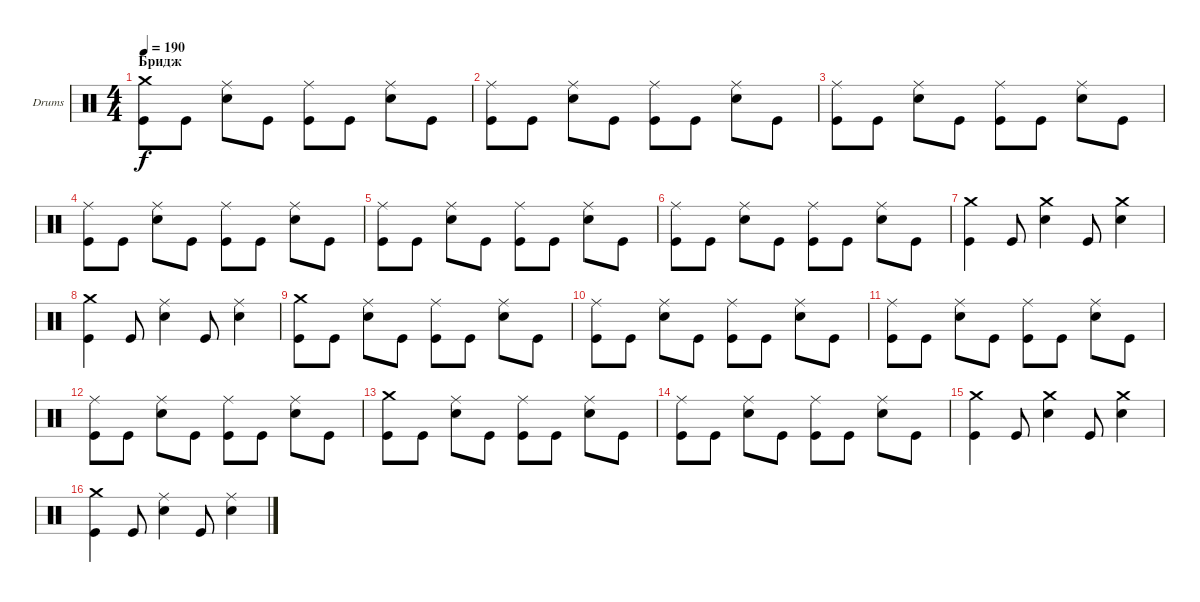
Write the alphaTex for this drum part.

\bracketExtendMode groupsimilarinstruments
\firstSystemTrackNameOrientation horizontal
\otherSystemsTrackNameOrientation horizontal
\track ("Максим Удалов" "Drums") {instrument percussion}
\staff {score}
\articulation defaults
\ts (4 4)
\section ("" "Бридж")
\tempo 190
\clef neutral
\ks c
("Kick (hit)" "Crash medium (hit)").8{dy f} "Kick (hit)".8 ("Snare (hit) 2" "Ride (middle)").8 "Kick (hit)".8 ("Kick (hit)" "Ride (middle)").8 "Kick (hit)".8 ("Snare (hit) 2" "Ride (middle)").8 "Kick (hit)".8 |
("Kick (hit)" "Ride (middle)").8 "Kick (hit)".8 ("Snare (hit) 2" "Ride (middle)").8 "Kick (hit)".8 ("Kick (hit)" "Ride (middle)").8 "Kick (hit)".8 ("Snare (hit) 2" "Ride (middle)").8 "Kick (hit)".8 |
("Kick (hit)" "Ride (middle)").8 "Kick (hit)".8 ("Snare (hit) 2" "Ride (middle)").8 "Kick (hit)".8 ("Kick (hit)" "Ride (middle)").8 "Kick (hit)".8 ("Snare (hit) 2" "Ride (middle)").8 "Kick (hit)".8 |
("Kick (hit)" "Ride (middle)").8 "Kick (hit)".8 ("Snare (hit) 2" "Ride (middle)").8 "Kick (hit)".8 ("Kick (hit)" "Ride (middle)").8 "Kick (hit)".8 ("Snare (hit) 2" "Ride (middle)").8 "Kick (hit)".8 |
("Kick (hit)" "Ride (middle)").8 "Kick (hit)".8 ("Snare (hit) 2" "Ride (middle)").8 "Kick (hit)".8 ("Kick (hit)" "Ride (middle)").8 "Kick (hit)".8 ("Snare (hit) 2" "Ride (middle)").8 "Kick (hit)".8 |
("Kick (hit)" "Ride (middle)").8 "Kick (hit)".8 ("Snare (hit) 2" "Ride (middle)").8 "Kick (hit)".8 ("Kick (hit)" "Ride (middle)").8 "Kick (hit)".8 ("Snare (hit) 2" "Ride (middle)").8 "Kick (hit)".8 |
("Kick (hit)" "Crash medium (hit)").4 "Kick (hit)".8 ("Snare (hit) 2" "Crash medium (hit)").4 "Kick (hit)".8 ("Snare (hit) 2" "Crash medium (hit)").4 |
("Kick (hit)" "Crash medium (hit)").4 "Kick (hit)".8 ("Snare (hit) 2" "Ride (middle)").4 "Kick (hit)".8 ("Snare (hit) 2" "Ride (middle)").4 |
("Kick (hit)" "Crash medium (hit)").8 "Kick (hit)".8 ("Snare (hit) 2" "Ride (middle)").8 "Kick (hit)".8 ("Kick (hit)" "Ride (middle)").8 "Kick (hit)".8 ("Snare (hit) 2" "Ride (middle)").8 "Kick (hit)".8 |
("Kick (hit)" "Ride (middle)").8 "Kick (hit)".8 ("Snare (hit) 2" "Ride (middle)").8 "Kick (hit)".8 ("Kick (hit)" "Ride (middle)").8 "Kick (hit)".8 ("Snare (hit) 2" "Ride (middle)").8 "Kick (hit)".8 |
("Kick (hit)" "Ride (middle)").8 "Kick (hit)".8 ("Snare (hit) 2" "Ride (middle)").8 "Kick (hit)".8 ("Kick (hit)" "Ride (middle)").8 "Kick (hit)".8 ("Snare (hit) 2" "Ride (middle)").8 "Kick (hit)".8 |
("Kick (hit)" "Ride (middle)").8 "Kick (hit)".8 ("Snare (hit) 2" "Ride (middle)").8 "Kick (hit)".8 ("Kick (hit)" "Ride (middle)").8 "Kick (hit)".8 ("Snare (hit) 2" "Ride (middle)").8 "Kick (hit)".8 |
("Kick (hit)" "Crash medium (hit)").8 "Kick (hit)".8 ("Snare (hit) 2" "Ride (middle)").8 "Kick (hit)".8 ("Kick (hit)" "Ride (middle)").8 "Kick (hit)".8 ("Snare (hit) 2" "Ride (middle)").8 "Kick (hit)".8 |
("Kick (hit)" "Ride (middle)").8 "Kick (hit)".8 ("Snare (hit) 2" "Ride (middle)").8 "Kick (hit)".8 ("Kick (hit)" "Ride (middle)").8 "Kick (hit)".8 ("Snare (hit) 2" "Ride (middle)").8 "Kick (hit)".8 |
("Kick (hit)" "Crash medium (hit)").4 "Kick (hit)".8 ("Snare (hit) 2" "Crash medium (hit)").4 "Kick (hit)".8 ("Snare (hit) 2" "Crash medium (hit)").4 |
("Kick (hit)" "Crash medium (hit)").4 "Kick (hit)".8 ("Snare (hit) 2" "Ride (middle)").4 "Kick (hit)".8 ("Snare (hit) 2" "Ride (middle)").4
